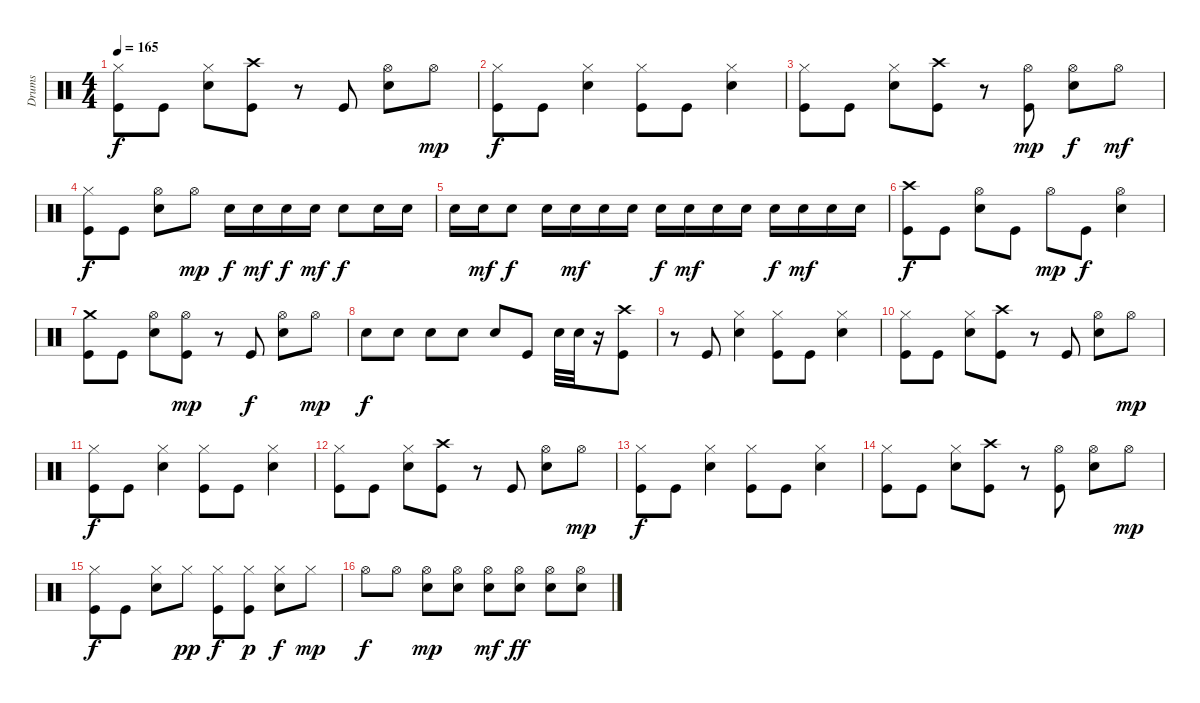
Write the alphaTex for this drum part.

\track ("Drums" "Drums") {instrument percussion}
\staff {score}
\articulation defaults
\ts (4 4)
\tempo 165
\clef neutral
\ks c
("Hi-Hat (closed)" "Kick (hit)").8{dy f} "Kick (hit)".8 ("Hi-Hat (closed)" "Snare (hit) 2").8 ("Crash high (hit)" "Kick (hit)").8 r.8 "Kick (hit)".8 ("Hi-Hat (open)" "Snare (hit) 2").8 "Hi-Hat (open)".8{dy mp} |
("Hi-Hat (closed)" "Kick (hit)").8{dy f} "Kick (hit)".8 ("Hi-Hat (closed)" "Snare (hit) 2").4 ("Hi-Hat (closed)" "Kick (hit)").8 "Kick (hit)".8 ("Hi-Hat (closed)" "Snare (hit) 2").4 |
("Hi-Hat (closed)" "Kick (hit)").8 "Kick (hit)".8 ("Hi-Hat (closed)" "Snare (hit) 2").8 ("Crash high (hit)" "Kick (hit)").8 r.8 ("Hi-Hat (open)" "Kick (hit)").8{dy mp} ("Hi-Hat (open)" "Snare (hit) 2").8{dy f} "Hi-Hat (open)".8{dy mf} |
("Hi-Hat (closed)" "Kick (hit)").8{dy f} "Kick (hit)".8 ("Hi-Hat (open)" "Snare (hit) 2").8 "Hi-Hat (open)".8{dy mp} "Snare (hit) 2".16{dy f} "Snare (hit) 2".16{dy mf} "Snare (hit) 2".16{dy f} "Snare (hit) 2".16{dy mf} "Snare (hit) 2".8{dy f} "Snare (hit) 2".16 "Snare (hit) 2".16 |
"Snare (hit) 2".16 "Snare (hit) 2".16{dy mf} "Snare (hit) 2".8{dy f} "Snare (hit) 2".16 "Snare (hit) 2".16{dy mf} "Snare (hit) 2".16 "Snare (hit) 2".16 "Snare (hit) 2".16{dy f} "Snare (hit) 2".16{dy mf} "Snare (hit) 2".16 "Snare (hit) 2".16 "Snare (hit) 2".16{dy f} "Snare (hit) 2".16{dy mf} "Snare (hit) 2".16 "Snare (hit) 2".16 |
("Crash high (hit)" "Kick (hit)").8{dy f} "Kick (hit)".8 ("Hi-Hat (open)" "Snare (hit) 2").8 "Kick (hit)".8 "Hi-Hat (open)".8{dy mp} "Kick (hit)".8{dy f} ("Hi-Hat (open)" "Snare (hit) 2").4 |
("Crash medium (hit)" "Kick (hit)").8 "Kick (hit)".8 ("Hi-Hat (open)" "Snare (hit) 2").8 ("Hi-Hat (open)" "Kick (hit)").8{dy mp} r.8 "Kick (hit)".8{dy f} ("Hi-Hat (open)" "Snare (hit) 2").8 "Hi-Hat (open)".8{dy mp} |
"Snare (hit) 2".8{dy f} "Snare (hit) 2".8 "Snare (hit) 2".8 "Snare (hit) 2".8 "Snare (hit) 2".8 "Kick (hit)".8 "Snare (hit) 2".32 "Snare (hit) 2".32 r.16 ("Crash high (hit)" "Kick (hit)").8 |
r.8 "Kick (hit)".8 ("Hi-Hat (closed)" "Snare (hit) 2").4 ("Hi-Hat (closed)" "Kick (hit)").8 "Kick (hit)".8 ("Hi-Hat (closed)" "Snare (hit) 2").4 |
("Hi-Hat (closed)" "Kick (hit)").8 "Kick (hit)".8 ("Hi-Hat (closed)" "Snare (hit) 2").8 ("Crash high (hit)" "Kick (hit)").8 r.8 "Kick (hit)".8 ("Hi-Hat (open)" "Snare (hit) 2").8 "Hi-Hat (open)".8{dy mp} |
("Hi-Hat (closed)" "Kick (hit)").8{dy f} "Kick (hit)".8 ("Hi-Hat (closed)" "Snare (hit) 2").4 ("Hi-Hat (closed)" "Kick (hit)").8 "Kick (hit)".8 ("Hi-Hat (closed)" "Snare (hit) 2").4 |
("Hi-Hat (closed)" "Kick (hit)").8 "Kick (hit)".8 ("Hi-Hat (closed)" "Snare (hit) 2").8 ("Crash high (hit)" "Kick (hit)").8 r.8 "Kick (hit)".8 ("Hi-Hat (open)" "Snare (hit) 2").8 "Hi-Hat (open)".8{dy mp} |
("Hi-Hat (closed)" "Kick (hit)").8{dy f} "Kick (hit)".8 ("Hi-Hat (closed)" "Snare (hit) 2").4 ("Hi-Hat (closed)" "Kick (hit)").8 "Kick (hit)".8 ("Hi-Hat (closed)" "Snare (hit) 2").4 |
("Hi-Hat (closed)" "Kick (hit)").8 "Kick (hit)".8 ("Hi-Hat (closed)" "Snare (hit) 2").8 ("Crash high (hit)" "Kick (hit)").8 r.8 ("Hi-Hat (open)" "Kick (hit)").8 ("Hi-Hat (open)" "Snare (hit) 2").8 "Hi-Hat (open)".8{dy mp} |
("Hi-Hat (closed)" "Kick (hit)").8{dy f} "Kick (hit)".8 ("Hi-Hat (closed)" "Snare (hit) 2").8 "Hi-Hat (closed)".8{dy pp} ("Hi-Hat (closed)" "Kick (hit)").8{dy f} ("Hi-Hat (closed)" "Kick (hit)").8{dy p} ("Hi-Hat (closed)" "Snare (hit) 2").8{dy f} "Hi-Hat (closed)".8{dy mp} |
"Hi-Hat (open)".8{dy f} "Hi-Hat (open)".8 ("Hi-Hat (open)" "Snare (hit) 2").8{dy mp} ("Hi-Hat (open)" "Snare (hit) 2").8 ("Hi-Hat (open)" "Snare (hit) 2").8{dy mf} ("Hi-Hat (open)" "Snare (hit) 2").8{dy ff} ("Hi-Hat (open)" "Snare (hit) 2").8 ("Hi-Hat (open)" "Snare (hit) 2").8
